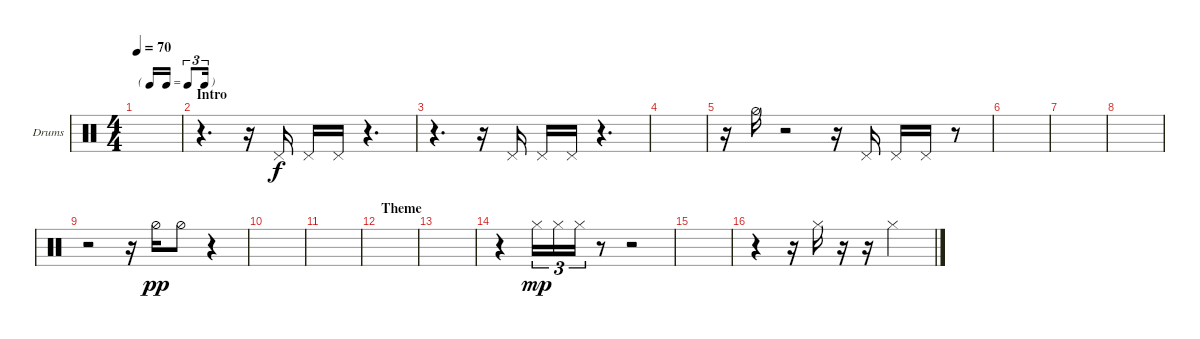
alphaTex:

\bracketExtendMode groupsimilarinstruments
\firstSystemTrackNameOrientation horizontal
\otherSystemsTrackNameOrientation horizontal
\track ("HH" "Drums") {instrument percussion}
\staff {score}
\articulation defaults
\ts (4 4)
\tf triplet16th
\tempo 70
\clef neutral
\ks c
|
\section ("" "Intro")
r.4{d} r.16 "Pedal Hi-Hat (hit)".16 "Pedal Hi-Hat (hit)".16 "Pedal Hi-Hat (hit)".16 r.4{d} |
\ks aminor
r.4{d} r.16 "Pedal Hi-Hat (hit)".16 "Pedal Hi-Hat (hit)".16 "Pedal Hi-Hat (hit)".16 r.4{d} |
|
r.16 "Hi-Hat (half)".16 r.2 r.16 "Pedal Hi-Hat (hit)".16 "Pedal Hi-Hat (hit)".16 "Pedal Hi-Hat (hit)".16 r.8 |
|
|
|
r.2 r.16 "Hi-Hat (half)".16{dy pp} "Hi-Hat (half)".8 r.4 |
|
|
\section ("" "Theme")
|
|
r.4 "Hi-Hat (closed)".16{tu (3 2) dy mp} "Hi-Hat (closed)".16{tu (3 2)} "Hi-Hat (closed)".16{tu (3 2)} r.8 r.2 |
|
r.4 r.16 "Hi-Hat (closed)".16 r.16 r.16 "Hi-Hat (closed)".2
